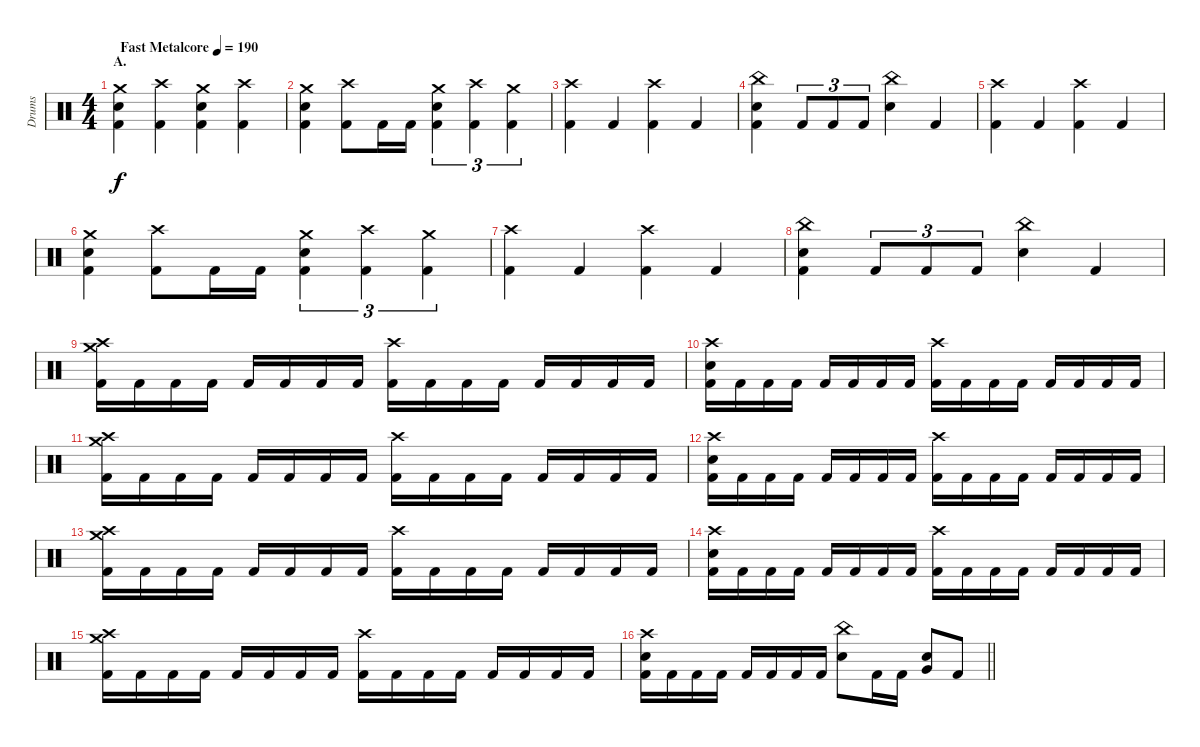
\track ("Drums" "Drums") {instrument percussion}
\staff {score}
\articulation defaults
\ts (4 4)
\section ("" "A.")
\tempo (190 "Fast Metalcore")
\clef neutral
\ks c
("Crash medium (hit)" "Electric Snare (hit)" "Kick (hit) 2").4{dy f} ("Crash high (hit)" "Kick (hit) 2").4 ("Crash medium (hit)" "Electric Snare (hit)" "Kick (hit) 2").4 ("Crash high (hit)" "Kick (hit) 2").4 |
("Crash medium (hit)" "Electric Snare (hit)" "Kick (hit) 2").4 ("Crash high (hit)" "Kick (hit) 2").8 "Kick (hit) 2".16 "Kick (hit) 2".16 ("Crash medium (hit)" "Electric Snare (hit)" "Kick (hit) 2").4{tu (3 2)} ("Crash high (hit)" "Kick (hit) 2").4{tu (3 2)} ("Crash medium (hit)" "Kick (hit) 2").4{tu (3 2)} |
("Crash high (hit)" "Kick (hit) 2").4 "Kick (hit) 2".4 ("Crash high (hit)" "Kick (hit) 2").4 "Kick (hit) 2".4 |
("China (hit)" "Electric Snare (hit)" "Kick (hit) 2").4 "Kick (hit) 2".8{tu (3 2)} "Kick (hit) 2".8{tu (3 2)} "Kick (hit) 2".8{tu (3 2)} ("China (hit)" "Electric Snare (hit)").4 "Kick (hit) 2".4 |
("Crash high (hit)" "Kick (hit) 2").4 "Kick (hit) 2".4 ("Crash high (hit)" "Kick (hit) 2").4 "Kick (hit) 2".4 |
("Crash medium (hit)" "Electric Snare (hit)" "Kick (hit) 2").4 ("Crash high (hit)" "Kick (hit) 2").8 "Kick (hit) 2".16 "Kick (hit) 2".16 ("Crash medium (hit)" "Electric Snare (hit)" "Kick (hit) 2").4{tu (3 2)} ("Crash high (hit)" "Kick (hit) 2").4{tu (3 2)} ("Crash medium (hit)" "Kick (hit) 2").4{tu (3 2)} |
("Crash high (hit)" "Kick (hit) 2").4 "Kick (hit) 2".4 ("Crash high (hit)" "Kick (hit) 2").4 "Kick (hit) 2".4 |
("China (hit)" "Electric Snare (hit)" "Kick (hit) 2").4 "Kick (hit) 2".8{tu (3 2)} "Kick (hit) 2".8{tu (3 2)} "Kick (hit) 2".8{tu (3 2)} ("China (hit)" "Electric Snare (hit)").4 "Kick (hit) 2".4 |
("Crash medium (hit)" "Crash high (hit)" "Kick (hit) 2").16 "Kick (hit) 2".16 "Kick (hit) 2".16 "Kick (hit) 2".16 "Kick (hit) 2".16 "Kick (hit) 2".16 "Kick (hit) 2".16 "Kick (hit) 2".16 ("Crash high (hit)" "Kick (hit) 2").16 "Kick (hit) 2".16 "Kick (hit) 2".16 "Kick (hit) 2".16 "Kick (hit) 2".16 "Kick (hit) 2".16 "Kick (hit) 2".16 "Kick (hit) 2".16 |
("Crash high (hit)" "Electric Snare (hit)" "Kick (hit) 2").16 "Kick (hit) 2".16 "Kick (hit) 2".16 "Kick (hit) 2".16 "Kick (hit) 2".16 "Kick (hit) 2".16 "Kick (hit) 2".16 "Kick (hit) 2".16 ("Crash high (hit)" "Kick (hit) 2").16 "Kick (hit) 2".16 "Kick (hit) 2".16 "Kick (hit) 2".16 "Kick (hit) 2".16 "Kick (hit) 2".16 "Kick (hit) 2".16 "Kick (hit) 2".16 |
("Crash medium (hit)" "Crash high (hit)" "Kick (hit) 2").16 "Kick (hit) 2".16 "Kick (hit) 2".16 "Kick (hit) 2".16 "Kick (hit) 2".16 "Kick (hit) 2".16 "Kick (hit) 2".16 "Kick (hit) 2".16 ("Crash high (hit)" "Kick (hit) 2").16 "Kick (hit) 2".16 "Kick (hit) 2".16 "Kick (hit) 2".16 "Kick (hit) 2".16 "Kick (hit) 2".16 "Kick (hit) 2".16 "Kick (hit) 2".16 |
("Crash high (hit)" "Electric Snare (hit)" "Kick (hit) 2").16 "Kick (hit) 2".16 "Kick (hit) 2".16 "Kick (hit) 2".16 "Kick (hit) 2".16 "Kick (hit) 2".16 "Kick (hit) 2".16 "Kick (hit) 2".16 ("Crash high (hit)" "Kick (hit) 2").16 "Kick (hit) 2".16 "Kick (hit) 2".16 "Kick (hit) 2".16 "Kick (hit) 2".16 "Kick (hit) 2".16 "Kick (hit) 2".16 "Kick (hit) 2".16 |
("Crash medium (hit)" "Crash high (hit)" "Kick (hit) 2").16 "Kick (hit) 2".16 "Kick (hit) 2".16 "Kick (hit) 2".16 "Kick (hit) 2".16 "Kick (hit) 2".16 "Kick (hit) 2".16 "Kick (hit) 2".16 ("Crash high (hit)" "Kick (hit) 2").16 "Kick (hit) 2".16 "Kick (hit) 2".16 "Kick (hit) 2".16 "Kick (hit) 2".16 "Kick (hit) 2".16 "Kick (hit) 2".16 "Kick (hit) 2".16 |
("Crash high (hit)" "Electric Snare (hit)" "Kick (hit) 2").16 "Kick (hit) 2".16 "Kick (hit) 2".16 "Kick (hit) 2".16 "Kick (hit) 2".16 "Kick (hit) 2".16 "Kick (hit) 2".16 "Kick (hit) 2".16 ("Crash high (hit)" "Kick (hit) 2").16 "Kick (hit) 2".16 "Kick (hit) 2".16 "Kick (hit) 2".16 "Kick (hit) 2".16 "Kick (hit) 2".16 "Kick (hit) 2".16 "Kick (hit) 2".16 |
("Crash medium (hit)" "Crash high (hit)" "Kick (hit) 2").16 "Kick (hit) 2".16 "Kick (hit) 2".16 "Kick (hit) 2".16 "Kick (hit) 2".16 "Kick (hit) 2".16 "Kick (hit) 2".16 "Kick (hit) 2".16 ("Crash high (hit)" "Kick (hit) 2").16 "Kick (hit) 2".16 "Kick (hit) 2".16 "Kick (hit) 2".16 "Kick (hit) 2".16 "Kick (hit) 2".16 "Kick (hit) 2".16 "Kick (hit) 2".16 |
\barLineRight lightlight
("Crash high (hit)" "Electric Snare (hit)" "Kick (hit) 2").16 "Kick (hit) 2".16 "Kick (hit) 2".16 "Kick (hit) 2".16 "Kick (hit) 2".16 "Kick (hit) 2".16 "Kick (hit) 2".16 "Kick (hit) 2".16 ("China (hit)" "Electric Snare (hit)").8 "Kick (hit) 2".16 "Kick (hit) 2".16 ("Electric Snare (hit)" "Very Low Tom (hit)").8{bu 120} "Kick (hit) 2".8
